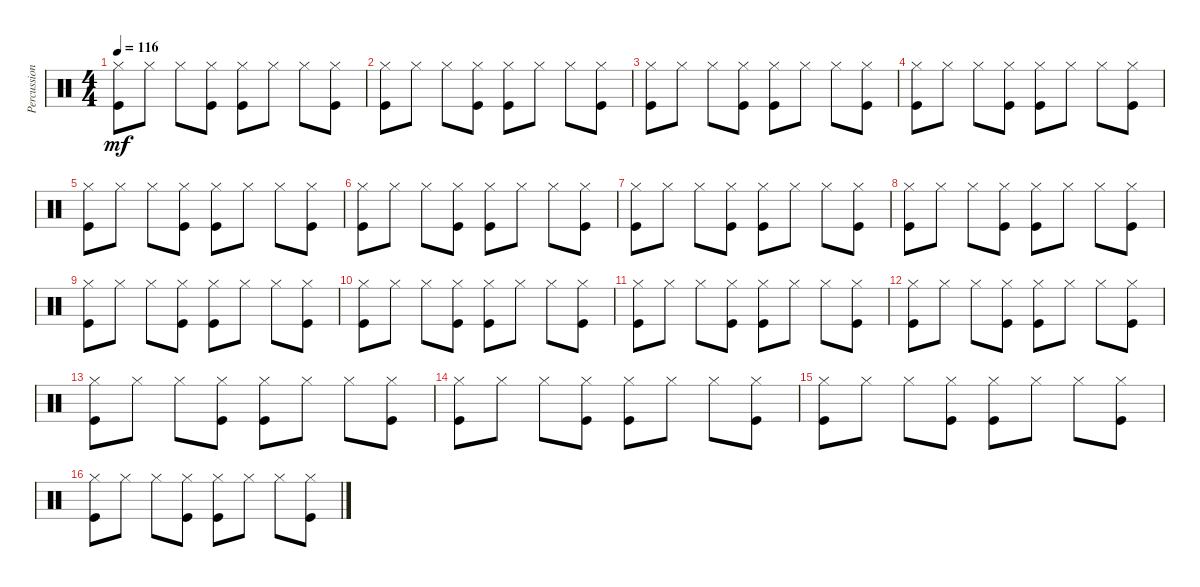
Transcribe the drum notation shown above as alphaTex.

\track ("Percussions" "Percussion") {instrument percussion}
\staff {score}
\articulation defaults
\ts (4 4)
\tempo 116
\clef neutral
\ks c
("Hi-Hat (closed)" "Kick (hit)").8{dy mf} "Hi-Hat (closed)".8 "Hi-Hat (closed)".8 ("Hi-Hat (closed)" "Kick (hit)").8 ("Hi-Hat (closed)" "Kick (hit)").8 "Hi-Hat (closed)".8 "Hi-Hat (closed)".8 ("Hi-Hat (closed)" "Kick (hit)").8 |
("Hi-Hat (closed)" "Kick (hit)").8 "Hi-Hat (closed)".8 "Hi-Hat (closed)".8 ("Hi-Hat (closed)" "Kick (hit)").8 ("Hi-Hat (closed)" "Kick (hit)").8 "Hi-Hat (closed)".8 "Hi-Hat (closed)".8 ("Hi-Hat (closed)" "Kick (hit)").8 |
("Hi-Hat (closed)" "Kick (hit)").8 "Hi-Hat (closed)".8 "Hi-Hat (closed)".8 ("Hi-Hat (closed)" "Kick (hit)").8 ("Hi-Hat (closed)" "Kick (hit)").8 "Hi-Hat (closed)".8 "Hi-Hat (closed)".8 ("Hi-Hat (closed)" "Kick (hit)").8 |
("Hi-Hat (closed)" "Kick (hit)").8 "Hi-Hat (closed)".8 "Hi-Hat (closed)".8 ("Hi-Hat (closed)" "Kick (hit)").8 ("Hi-Hat (closed)" "Kick (hit)").8 "Hi-Hat (closed)".8 "Hi-Hat (closed)".8 ("Hi-Hat (closed)" "Kick (hit)").8 |
("Hi-Hat (closed)" "Kick (hit)").8 "Hi-Hat (closed)".8 "Hi-Hat (closed)".8 ("Hi-Hat (closed)" "Kick (hit)").8 ("Hi-Hat (closed)" "Kick (hit)").8 "Hi-Hat (closed)".8 "Hi-Hat (closed)".8 ("Hi-Hat (closed)" "Kick (hit)").8 |
("Hi-Hat (closed)" "Kick (hit)").8 "Hi-Hat (closed)".8 "Hi-Hat (closed)".8 ("Hi-Hat (closed)" "Kick (hit)").8 ("Hi-Hat (closed)" "Kick (hit)").8 "Hi-Hat (closed)".8 "Hi-Hat (closed)".8 ("Hi-Hat (closed)" "Kick (hit)").8 |
("Hi-Hat (closed)" "Kick (hit)").8 "Hi-Hat (closed)".8 "Hi-Hat (closed)".8 ("Hi-Hat (closed)" "Kick (hit)").8 ("Hi-Hat (closed)" "Kick (hit)").8 "Hi-Hat (closed)".8 "Hi-Hat (closed)".8 ("Hi-Hat (closed)" "Kick (hit)").8 |
("Hi-Hat (closed)" "Kick (hit)").8 "Hi-Hat (closed)".8 "Hi-Hat (closed)".8 ("Hi-Hat (closed)" "Kick (hit)").8 ("Hi-Hat (closed)" "Kick (hit)").8 "Hi-Hat (closed)".8 "Hi-Hat (closed)".8 ("Hi-Hat (closed)" "Kick (hit)").8 |
("Hi-Hat (closed)" "Kick (hit)").8 "Hi-Hat (closed)".8 "Hi-Hat (closed)".8 ("Hi-Hat (closed)" "Kick (hit)").8 ("Hi-Hat (closed)" "Kick (hit)").8 "Hi-Hat (closed)".8 "Hi-Hat (closed)".8 ("Hi-Hat (closed)" "Kick (hit)").8 |
("Hi-Hat (closed)" "Kick (hit)").8 "Hi-Hat (closed)".8 "Hi-Hat (closed)".8 ("Hi-Hat (closed)" "Kick (hit)").8 ("Hi-Hat (closed)" "Kick (hit)").8 "Hi-Hat (closed)".8 "Hi-Hat (closed)".8 ("Hi-Hat (closed)" "Kick (hit)").8 |
("Hi-Hat (closed)" "Kick (hit)").8 "Hi-Hat (closed)".8 "Hi-Hat (closed)".8 ("Hi-Hat (closed)" "Kick (hit)").8 ("Hi-Hat (closed)" "Kick (hit)").8 "Hi-Hat (closed)".8 "Hi-Hat (closed)".8 ("Hi-Hat (closed)" "Kick (hit)").8 |
("Hi-Hat (closed)" "Kick (hit)").8 "Hi-Hat (closed)".8 "Hi-Hat (closed)".8 ("Hi-Hat (closed)" "Kick (hit)").8 ("Hi-Hat (closed)" "Kick (hit)").8 "Hi-Hat (closed)".8 "Hi-Hat (closed)".8 ("Hi-Hat (closed)" "Kick (hit)").8 |
("Hi-Hat (closed)" "Kick (hit)").8 "Hi-Hat (closed)".8 "Hi-Hat (closed)".8 ("Hi-Hat (closed)" "Kick (hit)").8 ("Hi-Hat (closed)" "Kick (hit)").8 "Hi-Hat (closed)".8 "Hi-Hat (closed)".8 ("Hi-Hat (closed)" "Kick (hit)").8 |
("Hi-Hat (closed)" "Kick (hit)").8 "Hi-Hat (closed)".8 "Hi-Hat (closed)".8 ("Hi-Hat (closed)" "Kick (hit)").8 ("Hi-Hat (closed)" "Kick (hit)").8 "Hi-Hat (closed)".8 "Hi-Hat (closed)".8 ("Hi-Hat (closed)" "Kick (hit)").8 |
("Hi-Hat (closed)" "Kick (hit)").8 "Hi-Hat (closed)".8 "Hi-Hat (closed)".8 ("Hi-Hat (closed)" "Kick (hit)").8 ("Hi-Hat (closed)" "Kick (hit)").8 "Hi-Hat (closed)".8 "Hi-Hat (closed)".8 ("Hi-Hat (closed)" "Kick (hit)").8 |
("Hi-Hat (closed)" "Kick (hit)").8 "Hi-Hat (closed)".8 "Hi-Hat (closed)".8 ("Hi-Hat (closed)" "Kick (hit)").8 ("Hi-Hat (closed)" "Kick (hit)").8 "Hi-Hat (closed)".8 "Hi-Hat (closed)".8 ("Hi-Hat (closed)" "Kick (hit)").8
